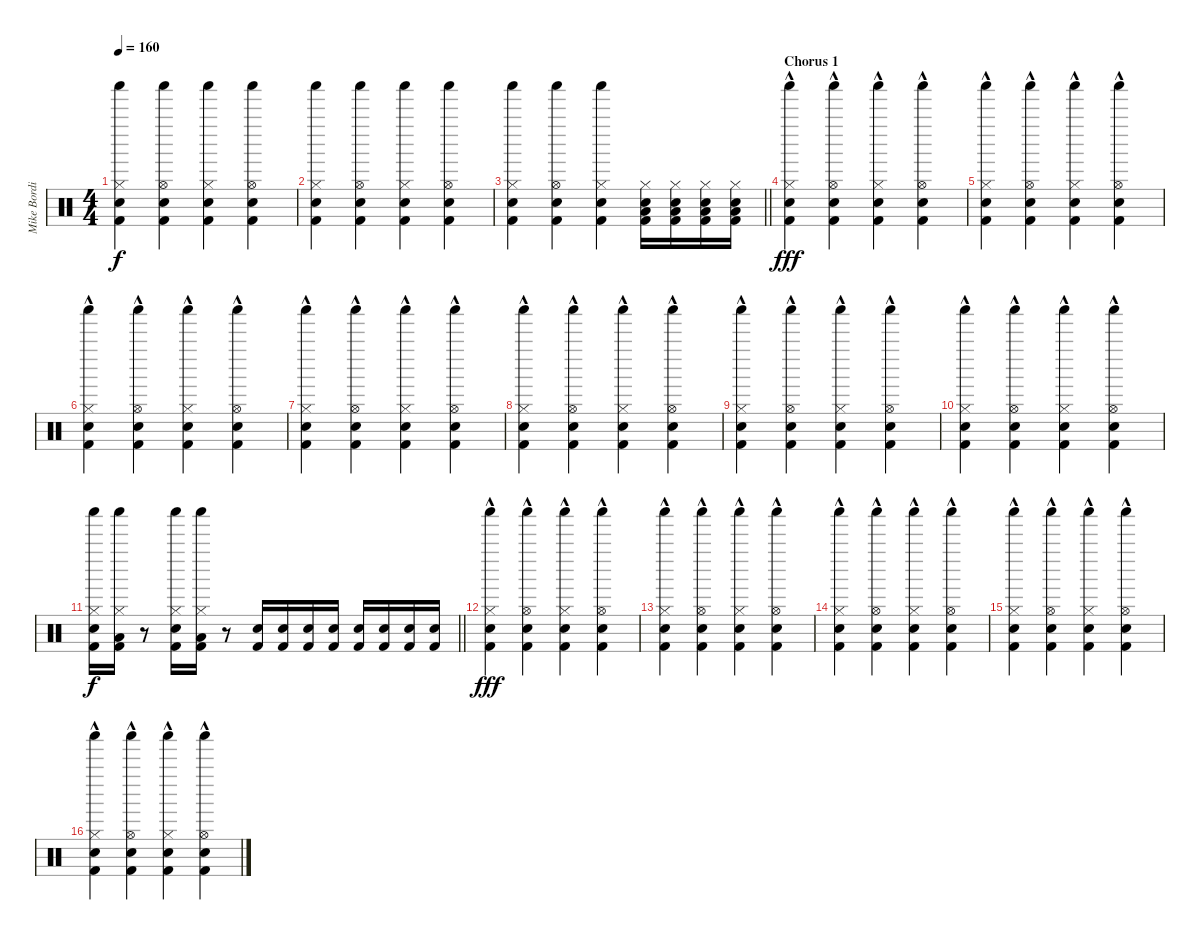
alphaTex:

\track ("Mike Bordin - Percussion" "Mike Bordi") {instrument percussion}
\staff {score}
\articulation defaults
\ts (4 4)
\tempo 160
\clef neutral
\ks c
("Shaker (hit)" "Snare (hit) 2" "Hi-Hat (closed)" "Kick (hit) 2").4{dy f} ("Shaker (hit)" "Snare (hit) 2" "Hi-Hat (open)" "Kick (hit) 2").4 ("Shaker (hit)" "Snare (hit) 2" "Hi-Hat (closed)" "Kick (hit) 2").4 ("Shaker (hit)" "Snare (hit) 2" "Hi-Hat (open)" "Kick (hit) 2").4 |
("Shaker (hit)" "Snare (hit) 2" "Hi-Hat (closed)" "Kick (hit) 2").4 ("Shaker (hit)" "Snare (hit) 2" "Hi-Hat (open)" "Kick (hit) 2").4 ("Shaker (hit)" "Snare (hit) 2" "Hi-Hat (closed)" "Kick (hit) 2").4 ("Shaker (hit)" "Snare (hit) 2" "Hi-Hat (open)" "Kick (hit) 2").4 |
\barLineRight lightlight
("Shaker (hit)" "Snare (hit) 2" "Hi-Hat (closed)" "Kick (hit) 2").4{volume 16} ("Shaker (hit)" "Snare (hit) 2" "Hi-Hat (open)" "Kick (hit) 2").4 ("Shaker (hit)" "Snare (hit) 2" "Hi-Hat (closed)" "Kick (hit) 2").4 ("Low Floor Tom (hit)" "Snare (hit) 2" "Hi-Hat (closed)" "Kick (hit) 2").16 ("Low Floor Tom (hit)" "Snare (hit) 2" "Hi-Hat (closed)" "Kick (hit) 2").16 ("Low Floor Tom (hit)" "Snare (hit) 2" "Hi-Hat (closed)" "Kick (hit) 2").16 ("Low Floor Tom (hit)" "Snare (hit) 2" "Hi-Hat (closed)" "Kick (hit) 2").16 |
\section ("" "Chorus 1")
("Shaker (hit)" "Snare (hit) 2" "Hi-Hat (closed)"{hac} "Kick (hit) 2").4{dy fff} ("Shaker (hit)" "Snare (hit) 2" "Hi-Hat (open)"{hac} "Kick (hit) 2").4 ("Shaker (hit)" "Snare (hit) 2" "Hi-Hat (closed)"{hac} "Kick (hit) 2").4 ("Shaker (hit)" "Snare (hit) 2" "Hi-Hat (open)"{hac} "Kick (hit) 2").4 |
("Shaker (hit)" "Snare (hit) 2" "Hi-Hat (closed)"{hac} "Kick (hit) 2").4 ("Shaker (hit)" "Snare (hit) 2" "Hi-Hat (open)"{hac} "Kick (hit) 2").4 ("Shaker (hit)" "Snare (hit) 2" "Hi-Hat (closed)"{hac} "Kick (hit) 2").4 ("Shaker (hit)" "Snare (hit) 2" "Hi-Hat (open)"{hac} "Kick (hit) 2").4 |
("Shaker (hit)" "Snare (hit) 2" "Hi-Hat (closed)"{hac} "Kick (hit) 2").4 ("Shaker (hit)" "Snare (hit) 2" "Hi-Hat (open)"{hac} "Kick (hit) 2").4 ("Shaker (hit)" "Snare (hit) 2" "Hi-Hat (closed)"{hac} "Kick (hit) 2").4 ("Shaker (hit)" "Snare (hit) 2" "Hi-Hat (open)"{hac} "Kick (hit) 2").4 |
("Shaker (hit)" "Snare (hit) 2" "Hi-Hat (closed)"{hac} "Kick (hit) 2").4 ("Shaker (hit)" "Snare (hit) 2" "Hi-Hat (open)"{hac} "Kick (hit) 2").4 ("Shaker (hit)" "Snare (hit) 2" "Hi-Hat (closed)"{hac} "Kick (hit) 2").4 ("Shaker (hit)" "Snare (hit) 2" "Hi-Hat (open)"{hac} "Kick (hit) 2").4 |
("Shaker (hit)" "Snare (hit) 2" "Hi-Hat (closed)"{hac} "Kick (hit) 2").4 ("Shaker (hit)" "Snare (hit) 2" "Hi-Hat (open)"{hac} "Kick (hit) 2").4 ("Shaker (hit)" "Snare (hit) 2" "Hi-Hat (closed)"{hac} "Kick (hit) 2").4 ("Shaker (hit)" "Snare (hit) 2" "Hi-Hat (open)"{hac} "Kick (hit) 2").4 |
("Shaker (hit)" "Snare (hit) 2" "Hi-Hat (closed)"{hac} "Kick (hit) 2").4 ("Shaker (hit)" "Snare (hit) 2" "Hi-Hat (open)"{hac} "Kick (hit) 2").4 ("Shaker (hit)" "Snare (hit) 2" "Hi-Hat (closed)"{hac} "Kick (hit) 2").4 ("Shaker (hit)" "Snare (hit) 2" "Hi-Hat (open)"{hac} "Kick (hit) 2").4 |
("Shaker (hit)" "Snare (hit) 2" "Hi-Hat (closed)"{hac} "Kick (hit) 2").4 ("Shaker (hit)" "Snare (hit) 2" "Hi-Hat (open)"{hac} "Kick (hit) 2").4 ("Shaker (hit)" "Snare (hit) 2" "Hi-Hat (closed)"{hac} "Kick (hit) 2").4 ("Shaker (hit)" "Snare (hit) 2" "Hi-Hat (open)"{hac} "Kick (hit) 2").4 |
\barLineRight lightlight
("Snare (hit) 2" "Hi-Hat (closed)" "Shaker (hit)" "Kick (hit) 2").16{dy f} ("Low Tom (hit)" "Hi-Hat (closed)" "Shaker (hit)" "Kick (hit) 2").16 r.8 ("Snare (hit) 2" "Hi-Hat (closed)" "Shaker (hit)" "Kick (hit) 2").16 ("Low Tom (hit)" "Hi-Hat (closed)" "Shaker (hit)" "Kick (hit) 2").16 r.8 ("Snare (hit) 2" "Kick (hit) 2").16 ("Snare (hit) 2" "Kick (hit) 2").16 ("Snare (hit) 2" "Kick (hit) 2").16 ("Snare (hit) 2" "Kick (hit) 2").16 ("Snare (hit) 2" "Kick (hit) 2").16 ("Snare (hit) 2" "Kick (hit) 2").16 ("Snare (hit) 2" "Kick (hit) 2").16 ("Snare (hit) 2" "Kick (hit) 2").16 |
\section ("" "")
("Shaker (hit)" "Snare (hit) 2" "Hi-Hat (closed)"{hac} "Kick (hit) 2").4{dy fff} ("Shaker (hit)" "Snare (hit) 2" "Hi-Hat (open)"{hac} "Kick (hit) 2").4 ("Shaker (hit)" "Snare (hit) 2" "Hi-Hat (closed)"{hac} "Kick (hit) 2").4 ("Shaker (hit)" "Snare (hit) 2" "Hi-Hat (open)"{hac} "Kick (hit) 2").4 |
("Shaker (hit)" "Snare (hit) 2" "Hi-Hat (closed)"{hac} "Kick (hit) 2").4 ("Shaker (hit)" "Snare (hit) 2" "Hi-Hat (open)"{hac} "Kick (hit) 2").4 ("Shaker (hit)" "Snare (hit) 2" "Hi-Hat (closed)"{hac} "Kick (hit) 2").4 ("Shaker (hit)" "Snare (hit) 2" "Hi-Hat (open)"{hac} "Kick (hit) 2").4 |
("Shaker (hit)" "Snare (hit) 2" "Hi-Hat (closed)"{hac} "Kick (hit) 2").4 ("Shaker (hit)" "Snare (hit) 2" "Hi-Hat (open)"{hac} "Kick (hit) 2").4 ("Shaker (hit)" "Snare (hit) 2" "Hi-Hat (closed)"{hac} "Kick (hit) 2").4 ("Shaker (hit)" "Snare (hit) 2" "Hi-Hat (open)"{hac} "Kick (hit) 2").4 |
("Shaker (hit)" "Snare (hit) 2" "Hi-Hat (closed)"{hac} "Kick (hit) 2").4 ("Shaker (hit)" "Snare (hit) 2" "Hi-Hat (open)"{hac} "Kick (hit) 2").4 ("Shaker (hit)" "Snare (hit) 2" "Hi-Hat (closed)"{hac} "Kick (hit) 2").4 ("Shaker (hit)" "Snare (hit) 2" "Hi-Hat (open)"{hac} "Kick (hit) 2").4 |
("Shaker (hit)" "Snare (hit) 2" "Hi-Hat (closed)"{hac} "Kick (hit) 2").4 ("Shaker (hit)" "Snare (hit) 2" "Hi-Hat (open)"{hac} "Kick (hit) 2").4 ("Shaker (hit)" "Snare (hit) 2" "Hi-Hat (closed)"{hac} "Kick (hit) 2").4 ("Shaker (hit)" "Snare (hit) 2" "Hi-Hat (open)"{hac} "Kick (hit) 2").4
